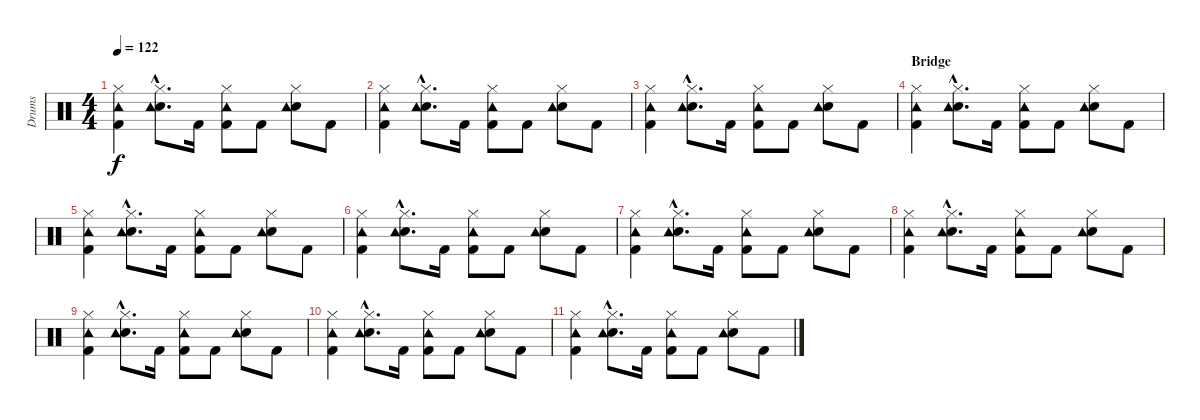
\track ("Drums" "Drums") {instrument percussion}
\staff {score}
\articulation defaults
\ts (4 4)
\tempo 122
\clef neutral
\ks c
("Hi-Hat (closed)" "Kick (hit) 2" "Tambourine (hit)").4{dy f} ("Hi-Hat (closed)"{hac} "Electric Snare (hit)"{hac} "Tambourine (hit)"{hac}).8{d} "Kick (hit) 2".16 ("Hi-Hat (closed)" "Kick (hit) 2" "Tambourine (hit)").8 "Kick (hit) 2".8 ("Hi-Hat (closed)" "Electric Snare (hit)" "Tambourine (hit)").8 "Kick (hit) 2".8 |
("Hi-Hat (closed)" "Kick (hit) 2" "Tambourine (hit)").4 ("Hi-Hat (closed)"{hac} "Electric Snare (hit)"{hac} "Tambourine (hit)"{hac}).8{d} "Kick (hit) 2".16 ("Hi-Hat (closed)" "Kick (hit) 2" "Tambourine (hit)").8 "Kick (hit) 2".8 ("Hi-Hat (closed)" "Electric Snare (hit)" "Tambourine (hit)").8 "Kick (hit) 2".8 |
("Hi-Hat (closed)" "Kick (hit) 2" "Tambourine (hit)").4 ("Hi-Hat (closed)"{hac} "Electric Snare (hit)"{hac} "Tambourine (hit)"{hac}).8{d} "Kick (hit) 2".16 ("Hi-Hat (closed)" "Kick (hit) 2" "Tambourine (hit)").8 "Kick (hit) 2".8 ("Hi-Hat (closed)" "Electric Snare (hit)" "Tambourine (hit)").8 "Kick (hit) 2".8 |
\section ("" "Bridge")
("Hi-Hat (closed)" "Kick (hit) 2" "Tambourine (hit)").4 ("Hi-Hat (closed)"{hac} "Electric Snare (hit)"{hac} "Tambourine (hit)"{hac}).8{d} "Kick (hit) 2".16 ("Hi-Hat (closed)" "Kick (hit) 2" "Tambourine (hit)").8 "Kick (hit) 2".8 ("Hi-Hat (closed)" "Electric Snare (hit)" "Tambourine (hit)").8 "Kick (hit) 2".8 |
("Hi-Hat (closed)" "Kick (hit) 2" "Tambourine (hit)").4 ("Hi-Hat (closed)"{hac} "Electric Snare (hit)"{hac} "Tambourine (hit)"{hac}).8{d} "Kick (hit) 2".16 ("Hi-Hat (closed)" "Kick (hit) 2" "Tambourine (hit)").8 "Kick (hit) 2".8 ("Hi-Hat (closed)" "Electric Snare (hit)" "Tambourine (hit)").8 "Kick (hit) 2".8 |
("Hi-Hat (closed)" "Kick (hit) 2" "Tambourine (hit)").4 ("Hi-Hat (closed)"{hac} "Electric Snare (hit)"{hac} "Tambourine (hit)"{hac}).8{d} "Kick (hit) 2".16 ("Hi-Hat (closed)" "Kick (hit) 2" "Tambourine (hit)").8 "Kick (hit) 2".8 ("Hi-Hat (closed)" "Electric Snare (hit)" "Tambourine (hit)").8 "Kick (hit) 2".8 |
("Hi-Hat (closed)" "Kick (hit) 2" "Tambourine (hit)").4 ("Hi-Hat (closed)"{hac} "Electric Snare (hit)"{hac} "Tambourine (hit)"{hac}).8{d} "Kick (hit) 2".16 ("Hi-Hat (closed)" "Kick (hit) 2" "Tambourine (hit)").8 "Kick (hit) 2".8 ("Hi-Hat (closed)" "Electric Snare (hit)" "Tambourine (hit)").8 "Kick (hit) 2".8 |
("Hi-Hat (closed)" "Kick (hit) 2" "Tambourine (hit)").4 ("Hi-Hat (closed)"{hac} "Electric Snare (hit)"{hac} "Tambourine (hit)"{hac}).8{d} "Kick (hit) 2".16 ("Hi-Hat (closed)" "Kick (hit) 2" "Tambourine (hit)").8 "Kick (hit) 2".8 ("Hi-Hat (closed)" "Electric Snare (hit)" "Tambourine (hit)").8 "Kick (hit) 2".8 |
("Hi-Hat (closed)" "Kick (hit) 2" "Tambourine (hit)").4 ("Hi-Hat (closed)"{hac} "Electric Snare (hit)"{hac} "Tambourine (hit)"{hac}).8{d} "Kick (hit) 2".16 ("Hi-Hat (closed)" "Kick (hit) 2" "Tambourine (hit)").8 "Kick (hit) 2".8 ("Hi-Hat (closed)" "Electric Snare (hit)" "Tambourine (hit)").8 "Kick (hit) 2".8 |
("Hi-Hat (closed)" "Kick (hit) 2" "Tambourine (hit)").4 ("Hi-Hat (closed)"{hac} "Electric Snare (hit)"{hac} "Tambourine (hit)"{hac}).8{d} "Kick (hit) 2".16 ("Hi-Hat (closed)" "Kick (hit) 2" "Tambourine (hit)").8 "Kick (hit) 2".8 ("Hi-Hat (closed)" "Electric Snare (hit)" "Tambourine (hit)").8 "Kick (hit) 2".8 |
("Hi-Hat (closed)" "Kick (hit) 2" "Tambourine (hit)").4 ("Hi-Hat (closed)"{hac} "Electric Snare (hit)"{hac} "Tambourine (hit)"{hac}).8{d} "Kick (hit) 2".16 ("Hi-Hat (closed)" "Kick (hit) 2" "Tambourine (hit)").8 "Kick (hit) 2".8 ("Hi-Hat (closed)" "Electric Snare (hit)" "Tambourine (hit)").8 "Kick (hit) 2".8
